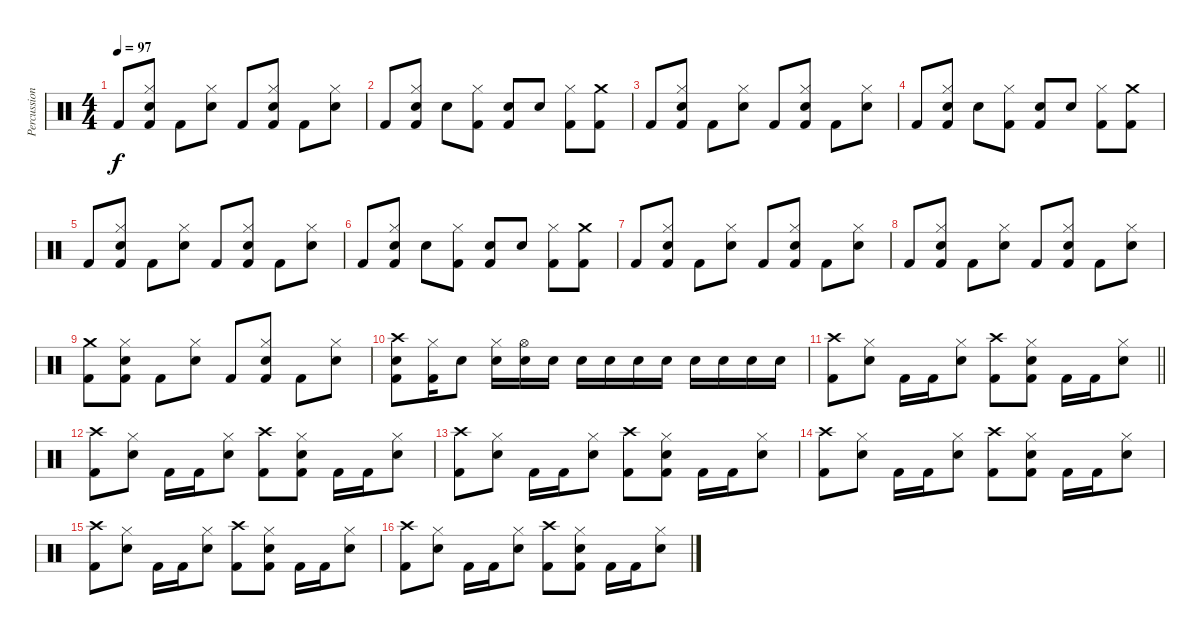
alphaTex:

\track ("Percussion" "Percussion") {instrument percussion}
\staff {score}
\articulation defaults
\ts (4 4)
\tempo 97
\clef neutral
\ks c "Kick (hit) 2".8{dy f}
("Hi-Hat (closed)" "Snare (hit) 2" "Kick (hit) 2").8 "Kick (hit) 2".8 ("Hi-Hat (closed)" "Snare (hit) 2").8 "Kick (hit) 2".8 ("Hi-Hat (closed)" "Snare (hit) 2" "Kick (hit) 2").8 "Kick (hit) 2".8 ("Hi-Hat (closed)" "Snare (hit) 2").8 |
"Kick (hit) 2".8 ("Hi-Hat (closed)" "Snare (hit) 2" "Kick (hit) 2").8 "Snare (hit) 2".8 ("Hi-Hat (closed)" "Kick (hit) 2").8 ("Snare (hit) 2" "Kick (hit) 2").8 "Snare (hit) 2".8 ("Hi-Hat (closed)" "Kick (hit) 2").8 ("Crash medium (hit)" "Kick (hit) 2").8 |
"Kick (hit) 2".8 ("Hi-Hat (closed)" "Snare (hit) 2" "Kick (hit) 2").8 "Kick (hit) 2".8 ("Hi-Hat (closed)" "Snare (hit) 2").8 "Kick (hit) 2".8 ("Hi-Hat (closed)" "Snare (hit) 2" "Kick (hit) 2").8 "Kick (hit) 2".8 ("Hi-Hat (closed)" "Snare (hit) 2").8 |
"Kick (hit) 2".8 ("Hi-Hat (closed)" "Snare (hit) 2" "Kick (hit) 2").8 "Snare (hit) 2".8 ("Hi-Hat (closed)" "Kick (hit) 2").8 ("Snare (hit) 2" "Kick (hit) 2").8 "Snare (hit) 2".8 ("Hi-Hat (closed)" "Kick (hit) 2").8 ("Crash medium (hit)" "Kick (hit) 2").8 |
"Kick (hit) 2".8 ("Hi-Hat (closed)" "Snare (hit) 2" "Kick (hit) 2").8 "Kick (hit) 2".8 ("Hi-Hat (closed)" "Snare (hit) 2").8 "Kick (hit) 2".8 ("Hi-Hat (closed)" "Snare (hit) 2" "Kick (hit) 2").8 "Kick (hit) 2".8 ("Hi-Hat (closed)" "Snare (hit) 2").8 |
"Kick (hit) 2".8 ("Hi-Hat (closed)" "Snare (hit) 2" "Kick (hit) 2").8 "Snare (hit) 2".8 ("Hi-Hat (closed)" "Kick (hit) 2").8 ("Snare (hit) 2" "Kick (hit) 2").8 "Snare (hit) 2".8 ("Hi-Hat (closed)" "Kick (hit) 2").8 ("Crash medium (hit)" "Kick (hit) 2").8 |
"Kick (hit) 2".8 ("Hi-Hat (closed)" "Snare (hit) 2" "Kick (hit) 2").8 "Kick (hit) 2".8 ("Hi-Hat (closed)" "Snare (hit) 2").8 "Kick (hit) 2".8 ("Hi-Hat (closed)" "Snare (hit) 2" "Kick (hit) 2").8 "Kick (hit) 2".8 ("Hi-Hat (closed)" "Snare (hit) 2").8 |
"Kick (hit) 2".8 ("Hi-Hat (closed)" "Snare (hit) 2" "Kick (hit) 2").8 "Kick (hit) 2".8 ("Hi-Hat (closed)" "Snare (hit) 2").8 "Kick (hit) 2".8 ("Hi-Hat (closed)" "Snare (hit) 2" "Kick (hit) 2").8 "Kick (hit) 2".8 ("Hi-Hat (closed)" "Snare (hit) 2").8 |
("Crash medium (hit)" "Kick (hit) 2").8 ("Hi-Hat (closed)" "Snare (hit) 2" "Kick (hit) 2").8 "Kick (hit) 2".8 ("Hi-Hat (closed)" "Snare (hit) 2").8 "Kick (hit) 2".8 ("Hi-Hat (closed)" "Snare (hit) 2" "Kick (hit) 2").8 "Kick (hit) 2".8 ("Hi-Hat (closed)" "Snare (hit) 2").8 |
("Crash high (hit)" "Snare (hit) 2" "Kick (hit) 2").8 ("Hi-Hat (closed)" "Kick (hit) 2").16 "Snare (hit) 2".8 ("Hi-Hat (closed)" "Snare (hit) 2").16 ("Hi-Hat (open)" "Snare (hit) 2").16 "Snare (hit) 2".16 "Snare (hit) 2".16 "Snare (hit) 2".16 "Snare (hit) 2".16 "Snare (hit) 2".16 "Snare (hit) 2".16 "Snare (hit) 2".16 "Snare (hit) 2".16 "Snare (hit) 2".16 |
\barLineRight lightlight
("Crash high (hit)" "Kick (hit) 2").8 ("Hi-Hat (closed)" "Snare (hit) 2").8 "Kick (hit) 2".16 "Kick (hit) 2".16 ("Hi-Hat (closed)" "Snare (hit) 2").8 ("Crash high (hit)" "Kick (hit) 2").8 ("Hi-Hat (closed)" "Snare (hit) 2" "Kick (hit) 2").8 "Kick (hit) 2".16 "Kick (hit) 2".16 ("Hi-Hat (closed)" "Snare (hit) 2").8 |
("Crash high (hit)" "Kick (hit) 2").8 ("Hi-Hat (closed)" "Snare (hit) 2").8 "Kick (hit) 2".16 "Kick (hit) 2".16 ("Hi-Hat (closed)" "Snare (hit) 2").8 ("Crash high (hit)" "Kick (hit) 2").8 ("Hi-Hat (closed)" "Snare (hit) 2" "Kick (hit) 2").8 "Kick (hit) 2".16 "Kick (hit) 2".16 ("Hi-Hat (closed)" "Snare (hit) 2").8 |
("Crash high (hit)" "Kick (hit) 2").8 ("Hi-Hat (closed)" "Snare (hit) 2").8 "Kick (hit) 2".16 "Kick (hit) 2".16 ("Hi-Hat (closed)" "Snare (hit) 2").8 ("Crash high (hit)" "Kick (hit) 2").8 ("Hi-Hat (closed)" "Snare (hit) 2" "Kick (hit) 2").8 "Kick (hit) 2".16 "Kick (hit) 2".16 ("Hi-Hat (closed)" "Snare (hit) 2").8 |
("Crash high (hit)" "Kick (hit) 2").8 ("Hi-Hat (closed)" "Snare (hit) 2").8 "Kick (hit) 2".16 "Kick (hit) 2".16 ("Hi-Hat (closed)" "Snare (hit) 2").8 ("Crash high (hit)" "Kick (hit) 2").8 ("Hi-Hat (closed)" "Snare (hit) 2" "Kick (hit) 2").8 "Kick (hit) 2".16 "Kick (hit) 2".16 ("Hi-Hat (closed)" "Snare (hit) 2").8 |
("Crash high (hit)" "Kick (hit) 2").8 ("Hi-Hat (closed)" "Snare (hit) 2").8 "Kick (hit) 2".16 "Kick (hit) 2".16 ("Hi-Hat (closed)" "Snare (hit) 2").8 ("Crash high (hit)" "Kick (hit) 2").8 ("Hi-Hat (closed)" "Snare (hit) 2" "Kick (hit) 2").8 "Kick (hit) 2".16 "Kick (hit) 2".16 ("Hi-Hat (closed)" "Snare (hit) 2").8 |
("Crash high (hit)" "Kick (hit) 2").8 ("Hi-Hat (closed)" "Snare (hit) 2").8 "Kick (hit) 2".16 "Kick (hit) 2".16 ("Hi-Hat (closed)" "Snare (hit) 2").8 ("Crash high (hit)" "Kick (hit) 2").8 ("Hi-Hat (closed)" "Snare (hit) 2" "Kick (hit) 2").8 "Kick (hit) 2".16 "Kick (hit) 2".16 ("Hi-Hat (closed)" "Snare (hit) 2").8
